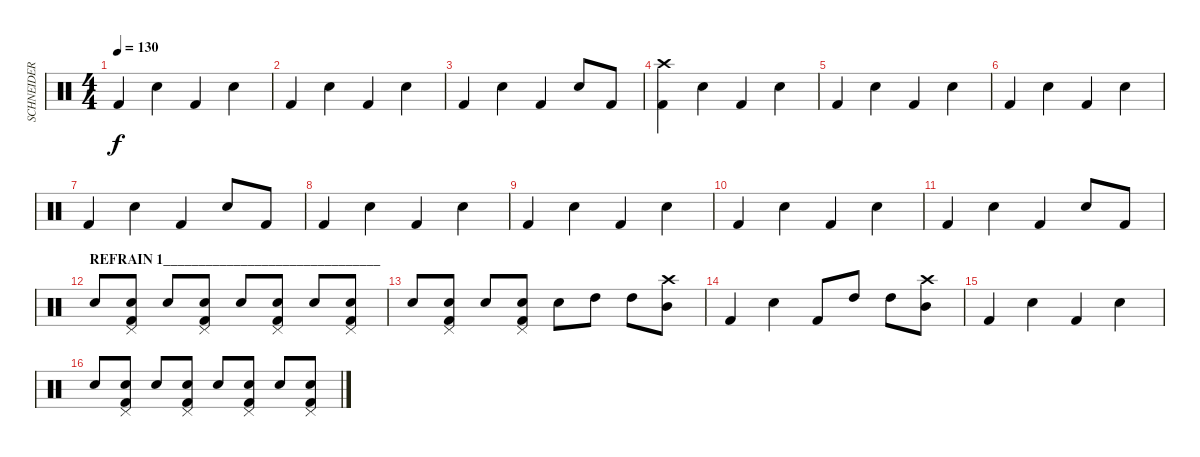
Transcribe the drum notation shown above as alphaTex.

\track ("SCHNEIDER - Drums" "SCHNEIDER ") {instrument percussion}
\staff {score}
\articulation defaults
\ts (4 4)
\tempo 130
\clef neutral
\ks c "Kick (hit) 2".4{dy f} "Snare (hit) 2".4 "Kick (hit) 2".4 "Snare (hit) 2".4
|
"Kick (hit) 2".4 "Snare (hit) 2".4 "Kick (hit) 2".4 "Snare (hit) 2".4 |
"Kick (hit) 2".4 "Snare (hit) 2".4 "Kick (hit) 2".4 "Snare (hit) 2".8 "Kick (hit) 2".8 |
("Crash high (hit)" "Kick (hit) 2").4 "Snare (hit) 2".4 "Kick (hit) 2".4 "Snare (hit) 2".4 |
"Kick (hit) 2".4 "Snare (hit) 2".4 "Kick (hit) 2".4 "Snare (hit) 2".4 |
"Kick (hit) 2".4 "Snare (hit) 2".4 "Kick (hit) 2".4 "Snare (hit) 2".4 |
"Kick (hit) 2".4 "Snare (hit) 2".4 "Kick (hit) 2".4 "Snare (hit) 2".8 "Kick (hit) 2".8 |
"Kick (hit) 2".4 "Snare (hit) 2".4 "Kick (hit) 2".4 "Snare (hit) 2".4 |
"Kick (hit) 2".4 "Snare (hit) 2".4 "Kick (hit) 2".4 "Snare (hit) 2".4 |
"Kick (hit) 2".4 "Snare (hit) 2".4 "Kick (hit) 2".4 "Snare (hit) 2".4 |
"Kick (hit) 2".4 "Snare (hit) 2".4 "Kick (hit) 2".4 "Snare (hit) 2".8 "Kick (hit) 2".8 |
\section ("" "REFRAIN 1_______________________________")
"Snare (hit) 2".8 ("Snare (hit) 2" "Kick (hit) 2" "Pedal Hi-Hat (hit)").8 "Snare (hit) 2".8 ("Snare (hit) 2" "Kick (hit) 2" "Pedal Hi-Hat (hit)").8 "Snare (hit) 2".8 ("Snare (hit) 2" "Kick (hit) 2" "Pedal Hi-Hat (hit)").8 "Snare (hit) 2".8 ("Snare (hit) 2" "Kick (hit) 2" "Pedal Hi-Hat (hit)").8 |
"Snare (hit) 2".8 ("Snare (hit) 2" "Kick (hit) 2" "Pedal Hi-Hat (hit)").8 "Snare (hit) 2".8 ("Snare (hit) 2" "Kick (hit) 2" "Pedal Hi-Hat (hit)").8 "Snare (hit) 2".8 "High Tom (hit)".8 "High Tom (hit)".8 ("Mid Tom (hit)" "Crash high (hit)").8 |
"Kick (hit) 2".4 "Snare (hit) 2".4 "Kick (hit) 2".8 "High Tom (hit)".8 "High Tom (hit)".8 ("Mid Tom (hit)" "Crash high (hit)").8 |
"Kick (hit) 2".4 "Snare (hit) 2".4 "Kick (hit) 2".4 "Snare (hit) 2".4 |
"Snare (hit) 2".8 ("Snare (hit) 2" "Kick (hit) 2" "Pedal Hi-Hat (hit)").8 "Snare (hit) 2".8 ("Snare (hit) 2" "Kick (hit) 2" "Pedal Hi-Hat (hit)").8 "Snare (hit) 2".8 ("Snare (hit) 2" "Kick (hit) 2" "Pedal Hi-Hat (hit)").8 "Snare (hit) 2".8 ("Snare (hit) 2" "Kick (hit) 2" "Pedal Hi-Hat (hit)").8
